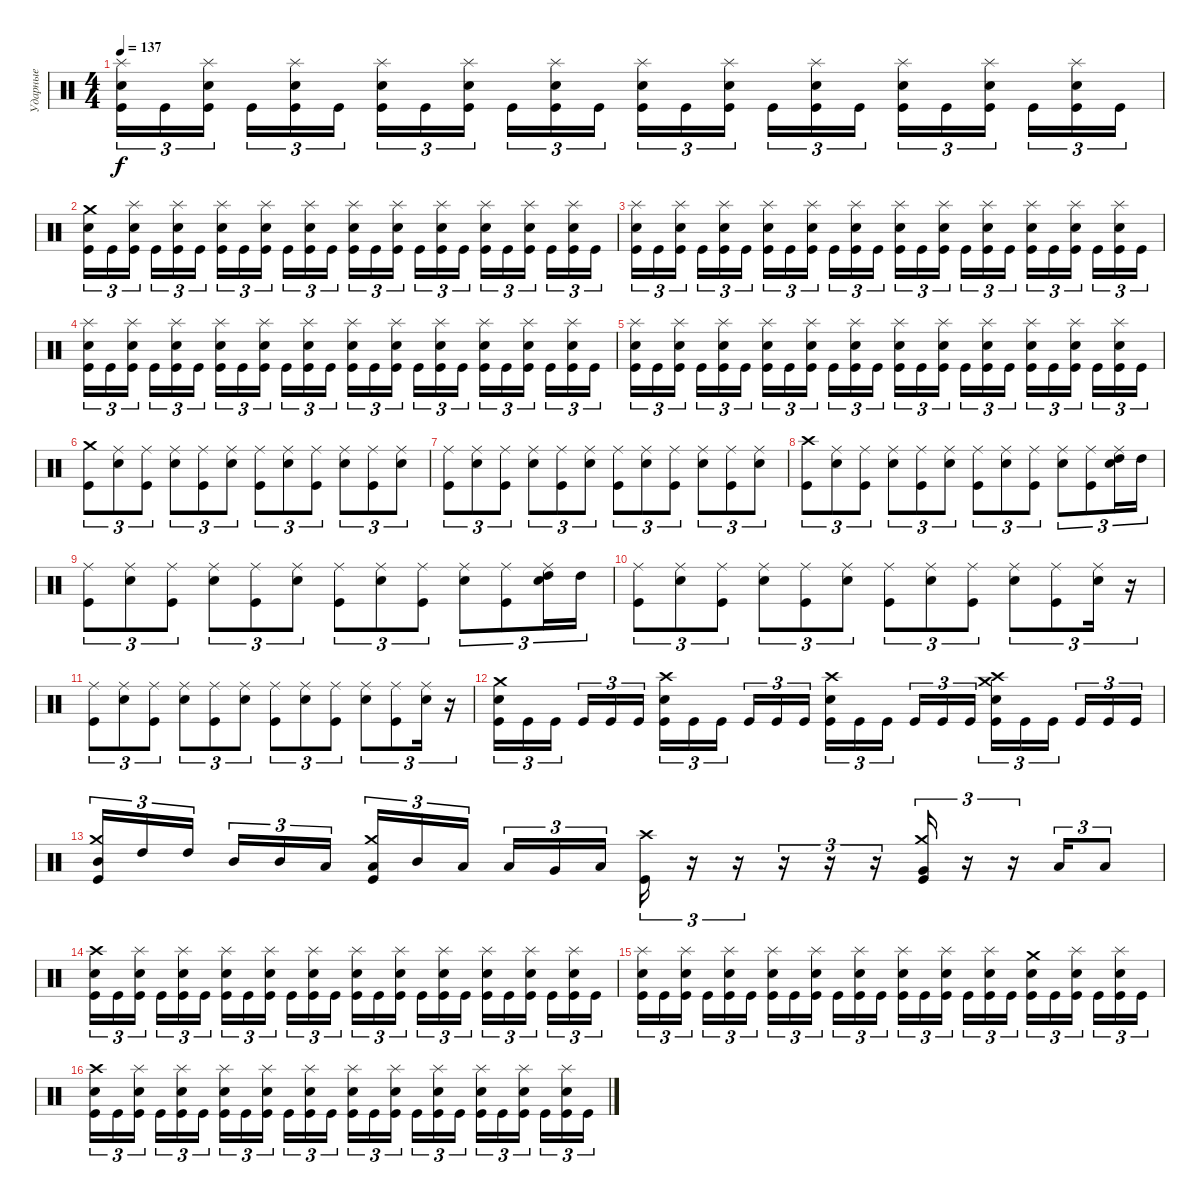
\track ("Ударные" "Ударные") {instrument percussion}
\staff {score}
\articulation defaults
\ts (4 4)
\tempo 137
\clef neutral
\ks c
("Splash (hit)" "Electric Snare (hit)" "Kick (hit)").16{tu (3 2) dy f} "Kick (hit)".16{tu (3 2)} ("Splash (hit)" "Electric Snare (hit)" "Kick (hit)").16{tu (3 2) beam splitsecondary} "Kick (hit)".16{tu (3 2)} ("Splash (hit)" "Electric Snare (hit)" "Kick (hit)").16{tu (3 2)} "Kick (hit)".16{tu (3 2)} ("Splash (hit)" "Electric Snare (hit)" "Kick (hit)").16{tu (3 2)} "Kick (hit)".16{tu (3 2)} ("Splash (hit)" "Electric Snare (hit)" "Kick (hit)").16{tu (3 2) beam splitsecondary} "Kick (hit)".16{tu (3 2)} ("Splash (hit)" "Electric Snare (hit)" "Kick (hit)").16{tu (3 2)} "Kick (hit)".16{tu (3 2)} ("Splash (hit)" "Electric Snare (hit)" "Kick (hit)").16{tu (3 2)} "Kick (hit)".16{tu (3 2)} ("Splash (hit)" "Electric Snare (hit)" "Kick (hit)").16{tu (3 2) beam splitsecondary} "Kick (hit)".16{tu (3 2)} ("Splash (hit)" "Electric Snare (hit)" "Kick (hit)").16{tu (3 2)} "Kick (hit)".16{tu (3 2)} ("Splash (hit)" "Electric Snare (hit)" "Kick (hit)").16{tu (3 2)} "Kick (hit)".16{tu (3 2)} ("Splash (hit)" "Electric Snare (hit)" "Kick (hit)").16{tu (3 2) beam splitsecondary} "Kick (hit)".16{tu (3 2)} ("Splash (hit)" "Electric Snare (hit)" "Kick (hit)").16{tu (3 2)} "Kick (hit)".16{tu (3 2)} |
("Crash medium (hit)" "Electric Snare (hit)" "Kick (hit)").16{tu (3 2)} "Kick (hit)".16{tu (3 2)} ("Splash (hit)" "Electric Snare (hit)" "Kick (hit)").16{tu (3 2) beam splitsecondary} "Kick (hit)".16{tu (3 2)} ("Splash (hit)" "Electric Snare (hit)" "Kick (hit)").16{tu (3 2)} "Kick (hit)".16{tu (3 2)} ("Splash (hit)" "Electric Snare (hit)" "Kick (hit)").16{tu (3 2)} "Kick (hit)".16{tu (3 2)} ("Splash (hit)" "Electric Snare (hit)" "Kick (hit)").16{tu (3 2) beam splitsecondary} "Kick (hit)".16{tu (3 2)} ("Splash (hit)" "Electric Snare (hit)" "Kick (hit)").16{tu (3 2)} "Kick (hit)".16{tu (3 2)} ("Splash (hit)" "Electric Snare (hit)" "Kick (hit)").16{tu (3 2)} "Kick (hit)".16{tu (3 2)} ("Splash (hit)" "Electric Snare (hit)" "Kick (hit)").16{tu (3 2) beam splitsecondary} "Kick (hit)".16{tu (3 2)} ("Splash (hit)" "Electric Snare (hit)" "Kick (hit)").16{tu (3 2)} "Kick (hit)".16{tu (3 2)} ("Splash (hit)" "Electric Snare (hit)" "Kick (hit)").16{tu (3 2)} "Kick (hit)".16{tu (3 2)} ("Splash (hit)" "Electric Snare (hit)" "Kick (hit)").16{tu (3 2) beam splitsecondary} "Kick (hit)".16{tu (3 2)} ("Splash (hit)" "Electric Snare (hit)" "Kick (hit)").16{tu (3 2)} "Kick (hit)".16{tu (3 2)} |
("Splash (hit)" "Electric Snare (hit)" "Kick (hit)").16{tu (3 2)} "Kick (hit)".16{tu (3 2)} ("Splash (hit)" "Electric Snare (hit)" "Kick (hit)").16{tu (3 2) beam splitsecondary} "Kick (hit)".16{tu (3 2)} ("Splash (hit)" "Electric Snare (hit)" "Kick (hit)").16{tu (3 2)} "Kick (hit)".16{tu (3 2)} ("Splash (hit)" "Electric Snare (hit)" "Kick (hit)").16{tu (3 2)} "Kick (hit)".16{tu (3 2)} ("Splash (hit)" "Electric Snare (hit)" "Kick (hit)").16{tu (3 2) beam splitsecondary} "Kick (hit)".16{tu (3 2)} ("Splash (hit)" "Electric Snare (hit)" "Kick (hit)").16{tu (3 2)} "Kick (hit)".16{tu (3 2)} ("Splash (hit)" "Electric Snare (hit)" "Kick (hit)").16{tu (3 2)} "Kick (hit)".16{tu (3 2)} ("Splash (hit)" "Electric Snare (hit)" "Kick (hit)").16{tu (3 2) beam splitsecondary} "Kick (hit)".16{tu (3 2)} ("Splash (hit)" "Electric Snare (hit)" "Kick (hit)").16{tu (3 2)} "Kick (hit)".16{tu (3 2)} ("Splash (hit)" "Electric Snare (hit)" "Kick (hit)").16{tu (3 2)} "Kick (hit)".16{tu (3 2)} ("Splash (hit)" "Electric Snare (hit)" "Kick (hit)").16{tu (3 2) beam splitsecondary} "Kick (hit)".16{tu (3 2)} ("Splash (hit)" "Electric Snare (hit)" "Kick (hit)").16{tu (3 2)} "Kick (hit)".16{tu (3 2)} |
("Splash (hit)" "Electric Snare (hit)" "Kick (hit)").16{tu (3 2)} "Kick (hit)".16{tu (3 2)} ("Splash (hit)" "Electric Snare (hit)" "Kick (hit)").16{tu (3 2) beam splitsecondary} "Kick (hit)".16{tu (3 2)} ("Splash (hit)" "Electric Snare (hit)" "Kick (hit)").16{tu (3 2)} "Kick (hit)".16{tu (3 2)} ("Splash (hit)" "Electric Snare (hit)" "Kick (hit)").16{tu (3 2)} "Kick (hit)".16{tu (3 2)} ("Splash (hit)" "Electric Snare (hit)" "Kick (hit)").16{tu (3 2) beam splitsecondary} "Kick (hit)".16{tu (3 2)} ("Splash (hit)" "Electric Snare (hit)" "Kick (hit)").16{tu (3 2)} "Kick (hit)".16{tu (3 2)} ("Splash (hit)" "Electric Snare (hit)" "Kick (hit)").16{tu (3 2)} "Kick (hit)".16{tu (3 2)} ("Splash (hit)" "Electric Snare (hit)" "Kick (hit)").16{tu (3 2) beam splitsecondary} "Kick (hit)".16{tu (3 2)} ("Splash (hit)" "Electric Snare (hit)" "Kick (hit)").16{tu (3 2)} "Kick (hit)".16{tu (3 2)} ("Splash (hit)" "Electric Snare (hit)" "Kick (hit)").16{tu (3 2)} "Kick (hit)".16{tu (3 2)} ("Splash (hit)" "Electric Snare (hit)" "Kick (hit)").16{tu (3 2) beam splitsecondary} "Kick (hit)".16{tu (3 2)} ("Splash (hit)" "Electric Snare (hit)" "Kick (hit)").16{tu (3 2)} "Kick (hit)".16{tu (3 2)} |
("Splash (hit)" "Electric Snare (hit)" "Kick (hit)").16{tu (3 2)} "Kick (hit)".16{tu (3 2)} ("Splash (hit)" "Electric Snare (hit)" "Kick (hit)").16{tu (3 2) beam splitsecondary} "Kick (hit)".16{tu (3 2)} ("Splash (hit)" "Electric Snare (hit)" "Kick (hit)").16{tu (3 2)} "Kick (hit)".16{tu (3 2)} ("Splash (hit)" "Electric Snare (hit)" "Kick (hit)").16{tu (3 2)} "Kick (hit)".16{tu (3 2)} ("Splash (hit)" "Electric Snare (hit)" "Kick (hit)").16{tu (3 2) beam splitsecondary} "Kick (hit)".16{tu (3 2)} ("Splash (hit)" "Electric Snare (hit)" "Kick (hit)").16{tu (3 2)} "Kick (hit)".16{tu (3 2)} ("Splash (hit)" "Electric Snare (hit)" "Kick (hit)").16{tu (3 2)} "Kick (hit)".16{tu (3 2)} ("Splash (hit)" "Electric Snare (hit)" "Kick (hit)").16{tu (3 2) beam splitsecondary} "Kick (hit)".16{tu (3 2)} ("Splash (hit)" "Electric Snare (hit)" "Kick (hit)").16{tu (3 2)} "Kick (hit)".16{tu (3 2)} ("Splash (hit)" "Electric Snare (hit)" "Kick (hit)").16{tu (3 2)} "Kick (hit)".16{tu (3 2)} ("Splash (hit)" "Electric Snare (hit)" "Kick (hit)").16{tu (3 2) beam splitsecondary} "Kick (hit)".16{tu (3 2)} ("Splash (hit)" "Electric Snare (hit)" "Kick (hit)").16{tu (3 2)} "Kick (hit)".16{tu (3 2)} |
("Crash medium (hit)" "Kick (hit)").8{tu (3 2)} ("Ride (middle)" "Electric Snare (hit)").8{tu (3 2)} ("Ride (middle)" "Kick (hit)").8{tu (3 2)} ("Ride (middle)" "Electric Snare (hit)").8{tu (3 2)} ("Ride (middle)" "Kick (hit)").8{tu (3 2)} ("Ride (middle)" "Electric Snare (hit)").8{tu (3 2)} ("Ride (middle)" "Kick (hit)").8{tu (3 2)} ("Ride (middle)" "Electric Snare (hit)").8{tu (3 2)} ("Ride (middle)" "Kick (hit)").8{tu (3 2)} ("Ride (middle)" "Electric Snare (hit)").8{tu (3 2)} ("Ride (middle)" "Kick (hit)").8{tu (3 2)} ("Ride (middle)" "Electric Snare (hit)").8{tu (3 2)} |
("Ride (middle)" "Kick (hit)").8{tu (3 2)} ("Ride (middle)" "Electric Snare (hit)").8{tu (3 2)} ("Ride (middle)" "Kick (hit)").8{tu (3 2)} ("Ride (middle)" "Electric Snare (hit)").8{tu (3 2)} ("Ride (middle)" "Kick (hit)").8{tu (3 2)} ("Ride (middle)" "Electric Snare (hit)").8{tu (3 2)} ("Ride (middle)" "Kick (hit)").8{tu (3 2)} ("Ride (middle)" "Electric Snare (hit)").8{tu (3 2)} ("Ride (middle)" "Kick (hit)").8{tu (3 2)} ("Ride (middle)" "Electric Snare (hit)").8{tu (3 2)} ("Ride (middle)" "Kick (hit)").8{tu (3 2)} ("Ride (middle)" "Electric Snare (hit)").8{tu (3 2)} |
("Crash high (hit)" "Kick (hit)").8{tu (3 2)} ("Ride (middle)" "Electric Snare (hit)").8{tu (3 2)} ("Ride (middle)" "Kick (hit)").8{tu (3 2)} ("Ride (middle)" "Electric Snare (hit)").8{tu (3 2)} ("Ride (middle)" "Kick (hit)").8{tu (3 2)} ("Ride (middle)" "Electric Snare (hit)").8{tu (3 2)} ("Ride (middle)" "Kick (hit)").8{tu (3 2)} ("Ride (middle)" "Electric Snare (hit)").8{tu (3 2)} ("Ride (middle)" "Kick (hit)").8{tu (3 2)} ("Ride (middle)" "Electric Snare (hit)").8{tu (3 2)} ("Ride (middle)" "Kick (hit)").8{tu (3 2)} ("Ride (middle)" "High Tom (hit)" "Electric Snare (hit)").16{tu (3 2)} "High Tom (hit)".16{tu (3 2)} |
("Ride (middle)" "Kick (hit)").8{tu (3 2)} ("Ride (middle)" "Electric Snare (hit)").8{tu (3 2)} ("Ride (middle)" "Kick (hit)").8{tu (3 2)} ("Ride (middle)" "Electric Snare (hit)").8{tu (3 2)} ("Ride (middle)" "Kick (hit)").8{tu (3 2)} ("Ride (middle)" "Electric Snare (hit)").8{tu (3 2)} ("Ride (middle)" "Kick (hit)").8{tu (3 2)} ("Ride (middle)" "Electric Snare (hit)").8{tu (3 2)} ("Ride (middle)" "Kick (hit)").8{tu (3 2)} ("Ride (middle)" "Electric Snare (hit)").8{tu (3 2)} ("Ride (middle)" "Kick (hit)").8{tu (3 2)} ("Ride (middle)" "High Tom (hit)" "Electric Snare (hit)").16{tu (3 2)} "High Tom (hit)".16{tu (3 2)} |
("Ride (middle)" "Kick (hit)").8{tu (3 2)} ("Ride (middle)" "Electric Snare (hit)").8{tu (3 2)} ("Ride (middle)" "Kick (hit)").8{tu (3 2)} ("Ride (middle)" "Electric Snare (hit)").8{tu (3 2)} ("Ride (middle)" "Kick (hit)").8{tu (3 2)} ("Ride (middle)" "Electric Snare (hit)").8{tu (3 2)} ("Ride (middle)" "Kick (hit)").8{tu (3 2)} ("Ride (middle)" "Electric Snare (hit)").8{tu (3 2)} ("Ride (middle)" "Kick (hit)").8{tu (3 2)} ("Ride (middle)" "Electric Snare (hit)").8{tu (3 2)} ("Ride (middle)" "Kick (hit)").8{tu (3 2)} ("Ride (middle)" "Electric Snare (hit)").16{tu (3 2)} r.16{tu (3 2)} |
("Ride (middle)" "Kick (hit)").8{tu (3 2)} ("Ride (middle)" "Electric Snare (hit)").8{tu (3 2)} ("Ride (middle)" "Kick (hit)").8{tu (3 2)} ("Ride (middle)" "Electric Snare (hit)").8{tu (3 2)} ("Ride (middle)" "Kick (hit)").8{tu (3 2)} ("Ride (middle)" "Electric Snare (hit)").8{tu (3 2)} ("Ride (middle)" "Kick (hit)").8{tu (3 2)} ("Ride (middle)" "Electric Snare (hit)").8{tu (3 2)} ("Ride (middle)" "Kick (hit)").8{tu (3 2)} ("Ride (middle)" "Electric Snare (hit)").8{tu (3 2)} ("Ride (middle)" "Kick (hit)").8{tu (3 2)} ("Ride (middle)" "Electric Snare (hit)").16{tu (3 2)} r.16{tu (3 2)} |
("Crash medium (hit)" "Electric Snare (hit)" "Kick (hit)").16{tu (3 2)} "Kick (hit)".16{tu (3 2)} "Kick (hit)".16{tu (3 2) beam splitsecondary} "Kick (hit)".16{tu (3 2)} "Kick (hit)".16{tu (3 2)} "Kick (hit)".16{tu (3 2)} ("Crash high (hit)" "Electric Snare (hit)" "Kick (hit)").16{tu (3 2)} "Kick (hit)".16{tu (3 2)} "Kick (hit)".16{tu (3 2) beam splitsecondary} "Kick (hit)".16{tu (3 2)} "Kick (hit)".16{tu (3 2)} "Kick (hit)".16{tu (3 2)} ("Crash high (hit)" "Electric Snare (hit)" "Kick (hit)").16{tu (3 2)} "Kick (hit)".16{tu (3 2)} "Kick (hit)".16{tu (3 2) beam splitsecondary} "Kick (hit)".16{tu (3 2)} "Kick (hit)".16{tu (3 2)} "Kick (hit)".16{tu (3 2)} ("Crash medium (hit)" "Crash high (hit)" "Electric Snare (hit)" "Kick (hit)").16{tu (3 2)} "Kick (hit)".16{tu (3 2)} "Kick (hit)".16{tu (3 2) beam splitsecondary} "Kick (hit)".16{tu (3 2)} "Kick (hit)".16{tu (3 2)} "Kick (hit)".16{tu (3 2)} |
("Crash medium (hit)" "Mid Tom (hit)" "Kick (hit)").16{tu (3 2)} "High Tom (hit)".16{tu (3 2)} "High Tom (hit)".16{tu (3 2) beam splitsecondary} "Mid Tom (hit)".16{tu (3 2)} "Mid Tom (hit)".16{tu (3 2)} "Low Tom (hit)".16{tu (3 2)} ("Crash medium (hit)" "Low Tom (hit)" "Kick (hit)").16{tu (3 2)} "Mid Tom (hit)".16{tu (3 2)} "Low Tom (hit)".16{tu (3 2) beam splitsecondary} "Low Tom (hit)".16{tu (3 2)} "Very Low Tom (hit)".16{tu (3 2)} "Low Tom (hit)".16{tu (3 2)} ("Crash high (hit)" "Kick (hit)").16{tu (3 2)} r.16{tu (3 2)} r.16{tu (3 2)} r.16{tu (3 2)} r.16{tu (3 2)} r.16{tu (3 2)} ("Crash medium (hit)" "Very Low Tom (hit)" "Kick (hit)").16{tu (3 2)} r.16{tu (3 2)} r.16{tu (3 2)} "Low Floor Tom (hit)".16{tu (3 2)} "Low Floor Tom (hit)".8{tu (3 2)} |
("Crash high (hit)" "Electric Snare (hit)" "Kick (hit)").16{tu (3 2)} "Kick (hit)".16{tu (3 2)} ("Splash (hit)" "Electric Snare (hit)" "Kick (hit)").16{tu (3 2) beam splitsecondary} "Kick (hit)".16{tu (3 2)} ("Splash (hit)" "Electric Snare (hit)" "Kick (hit)").16{tu (3 2)} "Kick (hit)".16{tu (3 2)} ("Splash (hit)" "Electric Snare (hit)" "Kick (hit)").16{tu (3 2)} "Kick (hit)".16{tu (3 2)} ("Splash (hit)" "Electric Snare (hit)" "Kick (hit)").16{tu (3 2) beam splitsecondary} "Kick (hit)".16{tu (3 2)} ("Splash (hit)" "Electric Snare (hit)" "Kick (hit)").16{tu (3 2)} "Kick (hit)".16{tu (3 2)} ("Splash (hit)" "Electric Snare (hit)" "Kick (hit)").16{tu (3 2)} "Kick (hit)".16{tu (3 2)} ("Splash (hit)" "Electric Snare (hit)" "Kick (hit)").16{tu (3 2) beam splitsecondary} "Kick (hit)".16{tu (3 2)} ("Splash (hit)" "Electric Snare (hit)" "Kick (hit)").16{tu (3 2)} "Kick (hit)".16{tu (3 2)} ("Splash (hit)" "Electric Snare (hit)" "Kick (hit)").16{tu (3 2)} "Kick (hit)".16{tu (3 2)} ("Splash (hit)" "Electric Snare (hit)" "Kick (hit)").16{tu (3 2) beam splitsecondary} "Kick (hit)".16{tu (3 2)} ("Splash (hit)" "Electric Snare (hit)" "Kick (hit)").16{tu (3 2)} "Kick (hit)".16{tu (3 2)} |
("Splash (hit)" "Electric Snare (hit)" "Kick (hit)").16{tu (3 2)} "Kick (hit)".16{tu (3 2)} ("Splash (hit)" "Electric Snare (hit)" "Kick (hit)").16{tu (3 2) beam splitsecondary} "Kick (hit)".16{tu (3 2)} ("Splash (hit)" "Electric Snare (hit)" "Kick (hit)").16{tu (3 2)} "Kick (hit)".16{tu (3 2)} ("Splash (hit)" "Electric Snare (hit)" "Kick (hit)").16{tu (3 2)} "Kick (hit)".16{tu (3 2)} ("Splash (hit)" "Electric Snare (hit)" "Kick (hit)").16{tu (3 2) beam splitsecondary} "Kick (hit)".16{tu (3 2)} ("Splash (hit)" "Electric Snare (hit)" "Kick (hit)").16{tu (3 2)} "Kick (hit)".16{tu (3 2)} ("Splash (hit)" "Electric Snare (hit)" "Kick (hit)").16{tu (3 2)} "Kick (hit)".16{tu (3 2)} ("Splash (hit)" "Electric Snare (hit)" "Kick (hit)").16{tu (3 2) beam splitsecondary} "Kick (hit)".16{tu (3 2)} ("Splash (hit)" "Electric Snare (hit)" "Kick (hit)").16{tu (3 2)} "Kick (hit)".16{tu (3 2)} ("Crash medium (hit)" "Electric Snare (hit)" "Kick (hit)").16{tu (3 2)} "Kick (hit)".16{tu (3 2)} ("Splash (hit)" "Electric Snare (hit)" "Kick (hit)").16{tu (3 2) beam splitsecondary} "Kick (hit)".16{tu (3 2)} ("Splash (hit)" "Electric Snare (hit)" "Kick (hit)").16{tu (3 2)} "Kick (hit)".16{tu (3 2)} |
("Crash high (hit)" "Electric Snare (hit)" "Kick (hit)").16{tu (3 2)} "Kick (hit)".16{tu (3 2)} ("Splash (hit)" "Electric Snare (hit)" "Kick (hit)").16{tu (3 2) beam splitsecondary} "Kick (hit)".16{tu (3 2)} ("Splash (hit)" "Electric Snare (hit)" "Kick (hit)").16{tu (3 2)} "Kick (hit)".16{tu (3 2)} ("Splash (hit)" "Electric Snare (hit)" "Kick (hit)").16{tu (3 2)} "Kick (hit)".16{tu (3 2)} ("Splash (hit)" "Electric Snare (hit)" "Kick (hit)").16{tu (3 2) beam splitsecondary} "Kick (hit)".16{tu (3 2)} ("Splash (hit)" "Electric Snare (hit)" "Kick (hit)").16{tu (3 2)} "Kick (hit)".16{tu (3 2)} ("Splash (hit)" "Electric Snare (hit)" "Kick (hit)").16{tu (3 2)} "Kick (hit)".16{tu (3 2)} ("Splash (hit)" "Electric Snare (hit)" "Kick (hit)").16{tu (3 2) beam splitsecondary} "Kick (hit)".16{tu (3 2)} ("Splash (hit)" "Electric Snare (hit)" "Kick (hit)").16{tu (3 2)} "Kick (hit)".16{tu (3 2)} ("Splash (hit)" "Electric Snare (hit)" "Kick (hit)").16{tu (3 2)} "Kick (hit)".16{tu (3 2)} ("Splash (hit)" "Electric Snare (hit)" "Kick (hit)").16{tu (3 2) beam splitsecondary} "Kick (hit)".16{tu (3 2)} ("Splash (hit)" "Electric Snare (hit)" "Kick (hit)").16{tu (3 2)} "Kick (hit)".16{tu (3 2)}
